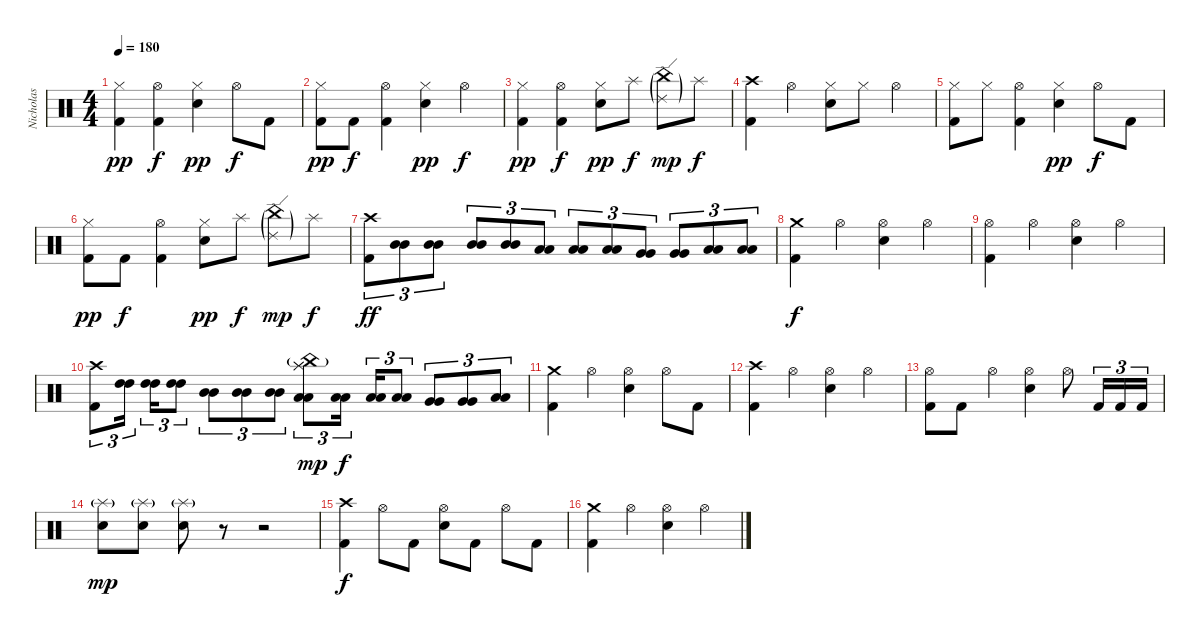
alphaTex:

\track ("Nicholas" "Nicholas") {instrument percussion}
\staff {score}
\articulation defaults
\ts (4 4)
\tempo 180
\clef neutral
\ks c
("Kick (hit) 2" "Hi-Hat (closed)").4{dy pp} ("Kick (hit) 2" "Hi-Hat (open)").4{dy f} ("Electric Snare (hit)" "Hi-Hat (closed)").4{dy pp} "Hi-Hat (open)".8{dy f} "Kick (hit) 2".8 |
("Kick (hit) 2" "Hi-Hat (closed)").8{dy pp} "Kick (hit) 2".8{dy f} ("Kick (hit) 2" "Hi-Hat (open)").4 ("Electric Snare (hit)" "Hi-Hat (closed)").4{dy pp} "Hi-Hat (open)".4{dy f} |
("Kick (hit) 2" "Hi-Hat (closed)").4{dy pp} ("Kick (hit) 2" "Hi-Hat (open)").4{dy f} ("Electric Snare (hit)" "Hi-Hat (closed)").8{dy pp} "Splash (hit)".8{dy f} ("China (hit)"{g} "Ride (edge) 2"{g}).8{dy mp} "Splash (hit)".8{dy f} |
("Kick (hit) 2" "Crash high (hit)").4 "Hi-Hat (open)".4 ("Electric Snare (hit)" "Hi-Hat (closed)").8 "Hi-Hat (closed)".8 "Hi-Hat (open)".4 |
("Kick (hit) 2" "Hi-Hat (closed)").8 "Hi-Hat (closed)".8 ("Kick (hit) 2" "Hi-Hat (open)").4 ("Electric Snare (hit)" "Hi-Hat (closed)").4{dy pp} "Hi-Hat (open)".8{dy f} "Kick (hit) 2".8 |
("Kick (hit) 2" "Hi-Hat (closed)").8{dy pp} "Kick (hit) 2".8{dy f} ("Kick (hit) 2" "Hi-Hat (open)").4 ("Electric Snare (hit)" "Hi-Hat (closed)").8{dy pp} "Splash (hit)".8{dy f} ("China (hit)"{g} "Ride (edge) 2"{g}).8{dy mp} "Splash (hit)".8{dy f} |
("Kick (hit) 2" "Crash high (hit)").8{tu (3 2) dy ff} ("Mid Tom (hit)" "Mid Tom (hit)").8{tu (3 2)} ("Mid Tom (hit)" "Mid Tom (hit)").8{tu (3 2)} ("Mid Tom (hit)" "Mid Tom (hit)").8{tu (3 2)} ("Mid Tom (hit)" "Mid Tom (hit)").8{tu (3 2)} ("Low Tom (hit)" "Low Tom (hit)").8{tu (3 2)} ("Low Tom (hit)" "Low Tom (hit)").8{tu (3 2)} ("Low Tom (hit)" "Low Tom (hit)").8{tu (3 2)} ("Very Low Tom (hit)" "Very Low Tom (hit)").8{tu (3 2)} ("Very Low Tom (hit)" "Very Low Tom (hit)").8{tu (3 2)} ("Low Floor Tom (hit)" "Low Floor Tom (hit)").8{tu (3 2)} ("Low Floor Tom (hit)" "Low Floor Tom (hit)").8{tu (3 2)} |
("Kick (hit) 2" "Crash medium (hit)").4{dy f} "Hi-Hat (open)".4 ("Electric Snare (hit)" "Hi-Hat (open)").4 "Hi-Hat (open)".4 |
("Kick (hit) 2" "Hi-Hat (open)").4 "Hi-Hat (open)".4 ("Electric Snare (hit)" "Hi-Hat (open)").4 "Hi-Hat (open)".4 |
("Kick (hit) 2" "Crash high (hit)").8{tu (3 2)} ("High Tom (hit)" "High Tom (hit)").16{tu (3 2) beam splitsecondary} ("High Tom (hit)" "High Tom (hit)").16{tu (3 2)} ("High Tom (hit)" "High Tom (hit)").8{tu (3 2)} ("Mid Tom (hit)" "Mid Tom (hit)").8{tu (3 2)} ("Mid Tom (hit)" "Mid Tom (hit)").8{tu (3 2)} ("Mid Tom (hit)" "Mid Tom (hit)").8{tu (3 2)} ("Low Tom (hit)" "Low Tom (hit)" "Splash (hit)" "Splash (hit)" "China (hit)"{g}).8{tu (3 2) dy mp} ("Low Tom (hit)" "Low Tom (hit)").16{tu (3 2) dy f beam splitsecondary} ("Low Tom (hit)" "Low Tom (hit)").16{tu (3 2)} ("Low Tom (hit)" "Low Tom (hit)").8{tu (3 2)} ("Very Low Tom (hit)" "Very Low Tom (hit)").8{tu (3 2)} ("Very Low Tom (hit)" "Very Low Tom (hit)").8{tu (3 2)} ("Low Floor Tom (hit)" "Low Floor Tom (hit)").8{tu (3 2)} |
("Kick (hit) 2" "Crash medium (hit)").4 "Hi-Hat (open)".4 ("Electric Snare (hit)" "Hi-Hat (open)").4 "Hi-Hat (open)".8 "Kick (hit) 2".8 |
("Kick (hit) 2" "Crash high (hit)").4 "Hi-Hat (open)".4 ("Electric Snare (hit)" "Hi-Hat (open)").4 "Hi-Hat (open)".4 |
("Kick (hit) 2" "Hi-Hat (open)").8 "Kick (hit) 2".8 "Hi-Hat (open)".4 ("Electric Snare (hit)" "Hi-Hat (open)").4 "Hi-Hat (open)".8 "Kick (hit) 2".16{tu (3 2)} "Kick (hit) 2".16{tu (3 2)} "Kick (hit) 2".16{tu (3 2)} |
("Electric Snare (hit)" "Splash (hit)"{g}).8{dy mp} ("Electric Snare (hit)" "Splash (hit)"{g}).8 ("Electric Snare (hit)" "Splash (hit)"{g}).8 r.8 r.2 |
("Kick (hit) 2" "Crash high (hit)").4{dy f} "Hi-Hat (open)".8 "Kick (hit) 2".8 ("Electric Snare (hit)" "Hi-Hat (open)").8 "Kick (hit) 2".8 "Hi-Hat (open)".8 "Kick (hit) 2".8 |
("Kick (hit) 2" "Crash medium (hit)").4 "Hi-Hat (open)".4 ("Electric Snare (hit)" "Hi-Hat (open)").4 "Hi-Hat (open)".4
